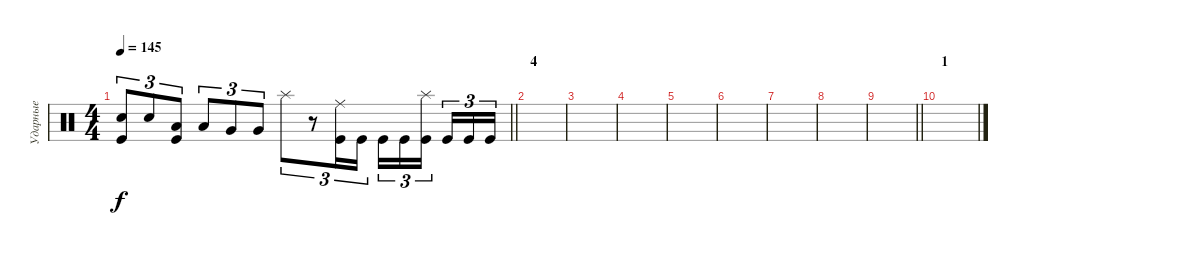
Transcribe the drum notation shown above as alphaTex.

\track ("Ударные" "Ударные") {instrument percussion}
\staff {score}
\articulation defaults
\ts (4 4)
\tempo 145
\clef neutral
\barLineRight lightlight
\ks c
("Electric Snare (hit)" "Kick (hit)").8{tu (3 2) dy f} "Electric Snare (hit)".8{tu (3 2)} ("Low Tom (hit)" "Kick (hit)").8{tu (3 2)} "Low Tom (hit)".8{tu (3 2)} "Very Low Tom (hit)".8{tu (3 2)} "Very Low Tom (hit)".8{tu (3 2)} "Splash (hit)".8{tu (3 2)} r.8{tu (3 2)} ("Ride (middle)" "Kick (hit)").16{tu (3 2)} "Kick (hit)".16{tu (3 2)} "Kick (hit)".16{tu (3 2)} "Kick (hit)".16{tu (3 2)} ("Splash (hit)" "Kick (hit)").16{tu (3 2) beam splitsecondary} "Kick (hit)".16{tu (3 2)} "Kick (hit)".16{tu (3 2)} "Kick (hit)".16{tu (3 2)} |
\section ("" "4")
|
|
|
|
|
|
|
\barLineRight lightlight
|
\section ("" "1")
